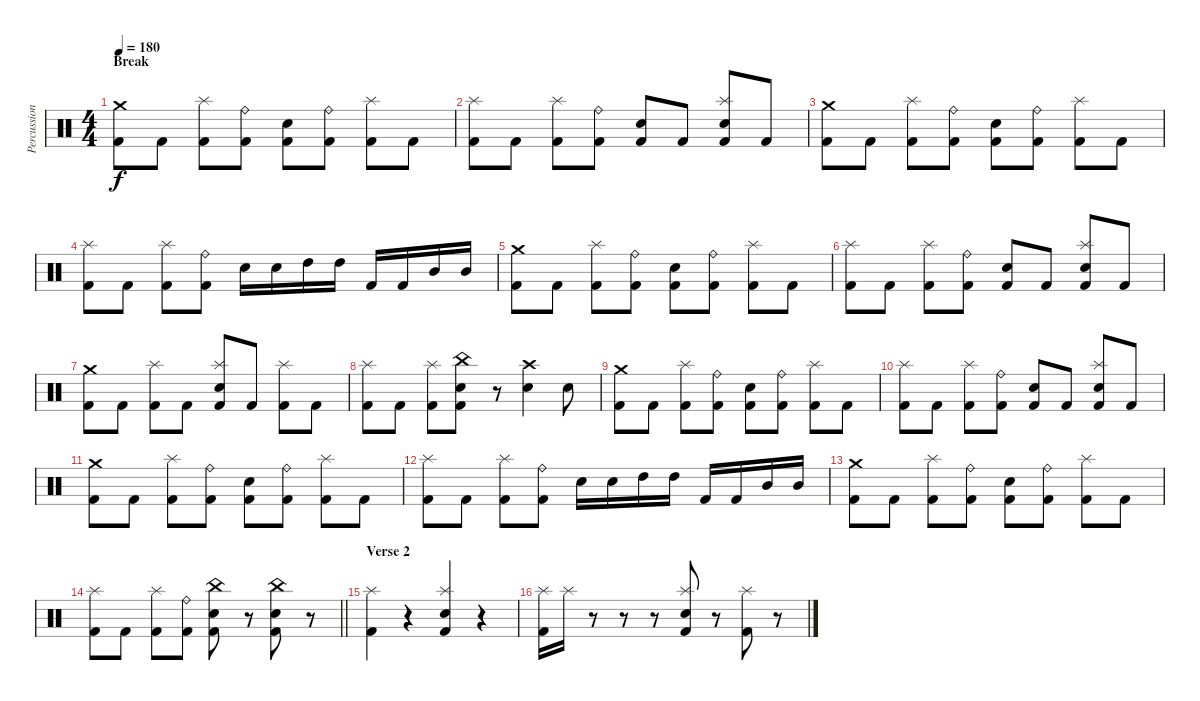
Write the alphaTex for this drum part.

\track ("Percussion" "Percussion") {instrument percussion}
\staff {score}
\articulation defaults
\ts (4 4)
\section ("" "Break")
\tempo 180
\clef neutral
\ks c
("Crash medium (hit)" "Kick (hit) 2").8{dy f} "Kick (hit) 2".8 ("Splash (hit)" "Kick (hit) 2").8 ("Ride (bell)" "Kick (hit) 2").8 ("Electric Snare (hit)" "Kick (hit) 2").8 ("Ride (bell)" "Kick (hit) 2").8 ("Splash (hit)" "Kick (hit) 2").8 "Kick (hit) 2".8 |
("Splash (hit)" "Kick (hit) 2").8 "Kick (hit) 2".8 ("Splash (hit)" "Kick (hit) 2").8 ("Ride (bell)" "Kick (hit) 2").8 ("Electric Snare (hit)" "Kick (hit) 2").8 "Kick (hit) 2".8 ("Splash (hit)" "Electric Snare (hit)" "Kick (hit) 2").8 "Kick (hit) 2".8 |
("Crash medium (hit)" "Kick (hit) 2").8 "Kick (hit) 2".8 ("Splash (hit)" "Kick (hit) 2").8 ("Ride (bell)" "Kick (hit) 2").8 ("Electric Snare (hit)" "Kick (hit) 2").8 ("Ride (bell)" "Kick (hit) 2").8 ("Splash (hit)" "Kick (hit) 2").8 "Kick (hit) 2".8 |
("Splash (hit)" "Kick (hit) 2").8 "Kick (hit) 2".8 ("Splash (hit)" "Kick (hit) 2").8 ("Ride (bell)" "Kick (hit) 2").8 "Electric Snare (hit)".16 "Electric Snare (hit)".16 "High Tom (hit)".16 "High Tom (hit)".16 "Kick (hit) 2".16 "Kick (hit) 2".16 "Mid Tom (hit)".16 "Mid Tom (hit)".16 |
("Crash medium (hit)" "Kick (hit) 2").8 "Kick (hit) 2".8 ("Splash (hit)" "Kick (hit) 2").8 ("Ride (bell)" "Kick (hit) 2").8 ("Electric Snare (hit)" "Kick (hit) 2").8 ("Ride (bell)" "Kick (hit) 2").8 ("Splash (hit)" "Kick (hit) 2").8 "Kick (hit) 2".8 |
("Splash (hit)" "Kick (hit) 2").8 "Kick (hit) 2".8 ("Splash (hit)" "Kick (hit) 2").8 ("Ride (bell)" "Kick (hit) 2").8 ("Electric Snare (hit)" "Kick (hit) 2").8 "Kick (hit) 2".8 ("Splash (hit)" "Electric Snare (hit)" "Kick (hit) 2").8 "Kick (hit) 2".8 |
("Crash medium (hit)" "Kick (hit) 2").8 "Kick (hit) 2".8 ("Splash (hit)" "Kick (hit) 2").8 "Kick (hit) 2".8 ("Splash (hit)" "Electric Snare (hit)" "Kick (hit) 2").8 "Kick (hit) 2".8 ("Splash (hit)" "Kick (hit) 2").8 "Kick (hit) 2".8 |
("Splash (hit)" "Kick (hit) 2").8 "Kick (hit) 2".8 ("Splash (hit)" "Kick (hit) 2").8 ("China (hit)" "Electric Snare (hit)" "Kick (hit) 2").8 r.8 ("Crash high (hit)" "Electric Snare (hit)").4 "Electric Snare (hit)".8 |
("Crash medium (hit)" "Kick (hit) 2").8 "Kick (hit) 2".8 ("Splash (hit)" "Kick (hit) 2").8 ("Ride (bell)" "Kick (hit) 2").8 ("Electric Snare (hit)" "Kick (hit) 2").8 ("Ride (bell)" "Kick (hit) 2").8 ("Splash (hit)" "Kick (hit) 2").8 "Kick (hit) 2".8 |
("Splash (hit)" "Kick (hit) 2").8 "Kick (hit) 2".8 ("Splash (hit)" "Kick (hit) 2").8 ("Ride (bell)" "Kick (hit) 2").8 ("Electric Snare (hit)" "Kick (hit) 2").8 "Kick (hit) 2".8 ("Splash (hit)" "Electric Snare (hit)" "Kick (hit) 2").8 "Kick (hit) 2".8 |
("Crash medium (hit)" "Kick (hit) 2").8 "Kick (hit) 2".8 ("Splash (hit)" "Kick (hit) 2").8 ("Ride (bell)" "Kick (hit) 2").8 ("Electric Snare (hit)" "Kick (hit) 2").8 ("Ride (bell)" "Kick (hit) 2").8 ("Splash (hit)" "Kick (hit) 2").8 "Kick (hit) 2".8 |
("Splash (hit)" "Kick (hit) 2").8 "Kick (hit) 2".8 ("Splash (hit)" "Kick (hit) 2").8 ("Ride (bell)" "Kick (hit) 2").8 "Electric Snare (hit)".16 "Electric Snare (hit)".16 "High Tom (hit)".16 "High Tom (hit)".16 "Kick (hit) 2".16 "Kick (hit) 2".16 "Mid Tom (hit)".16 "Mid Tom (hit)".16 |
("Crash medium (hit)" "Kick (hit) 2").8 "Kick (hit) 2".8 ("Splash (hit)" "Kick (hit) 2").8 ("Ride (bell)" "Kick (hit) 2").8 ("Electric Snare (hit)" "Kick (hit) 2").8 ("Ride (bell)" "Kick (hit) 2").8 ("Splash (hit)" "Kick (hit) 2").8 "Kick (hit) 2".8 |
\barLineRight lightlight
("Splash (hit)" "Kick (hit) 2").8 "Kick (hit) 2".8 ("Splash (hit)" "Kick (hit) 2").8 ("Ride (bell)" "Kick (hit) 2").8 ("China (hit)" "Electric Snare (hit)" "Kick (hit) 2").8 r.8 ("China (hit)" "Electric Snare (hit)" "Kick (hit) 2").8 r.8 |
\section ("" "Verse 2")
("Splash (hit)" "Kick (hit) 2").4 r.4 ("Splash (hit)" "Electric Snare (hit)" "Kick (hit) 2").4 r.4 |
("Splash (hit)" "Kick (hit) 2").16 "Splash (hit)".16 r.8 r.8 r.8 ("Splash (hit)" "Electric Snare (hit)" "Kick (hit) 2").8 r.8 ("Splash (hit)" "Kick (hit) 2").8 r.8
